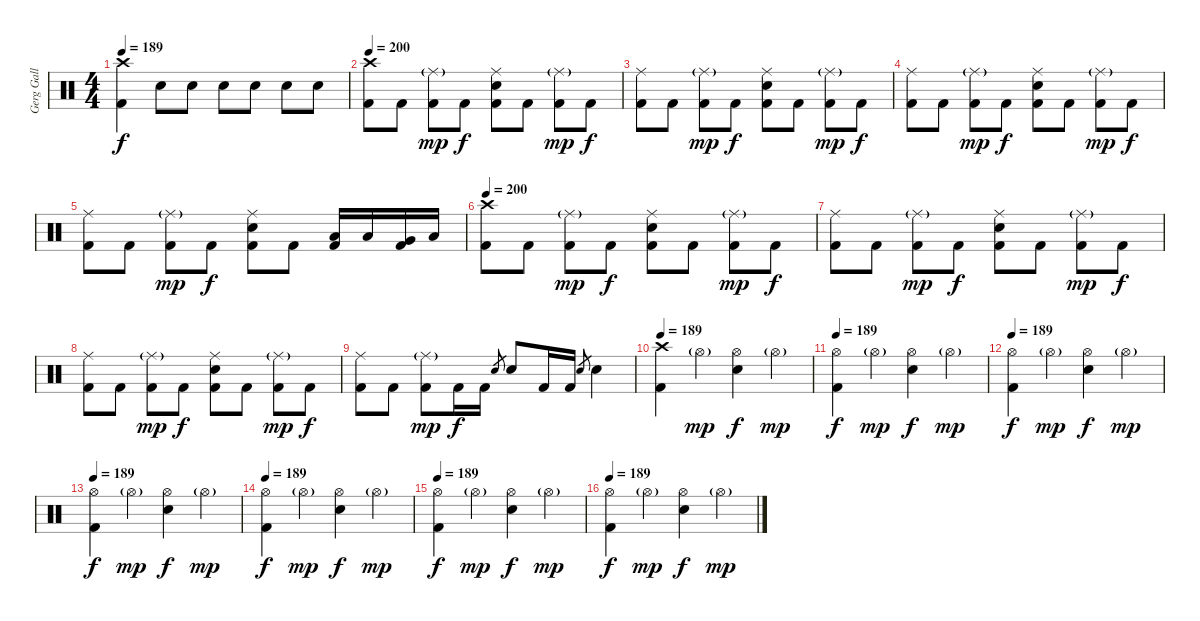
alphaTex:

\track ("Gerg Gall (Drums)" "Gerg Gall ") {instrument percussion}
\staff {score}
\articulation defaults
\ts (4 4)
\tempo 189
\clef neutral
\ks c
("Crash high (hit)" "Kick (hit) 2").4{dy f} "Snare (hit) 2".8 "Snare (hit) 2".8 "Snare (hit) 2".8 "Snare (hit) 2".8 "Snare (hit) 2".8 "Snare (hit) 2".8 |
\tempo 200
("Crash high (hit)" "Kick (hit) 2").8 "Kick (hit) 2".8 ("Ride (middle)"{g} "Kick (hit) 2").8{dy mp} "Kick (hit) 2".8{dy f} ("Snare (hit) 2" "Ride (middle)" "Kick (hit) 2").8 "Kick (hit) 2".8 ("Ride (middle)"{g} "Kick (hit) 2").8{dy mp} "Kick (hit) 2".8{dy f} |
("Ride (middle)" "Kick (hit) 2").8 "Kick (hit) 2".8 ("Ride (middle)"{g} "Kick (hit) 2").8{dy mp} "Kick (hit) 2".8{dy f} ("Snare (hit) 2" "Ride (middle)" "Kick (hit) 2").8 "Kick (hit) 2".8 ("Ride (middle)"{g} "Kick (hit) 2").8{dy mp} "Kick (hit) 2".8{dy f} |
("Ride (middle)" "Kick (hit) 2").8 "Kick (hit) 2".8 ("Ride (middle)"{g} "Kick (hit) 2").8{dy mp} "Kick (hit) 2".8{dy f} ("Snare (hit) 2" "Ride (middle)" "Kick (hit) 2").8 "Kick (hit) 2".8 ("Ride (middle)"{g} "Kick (hit) 2").8{dy mp} "Kick (hit) 2".8{dy f} |
("Ride (middle)" "Kick (hit) 2").8 "Kick (hit) 2".8 ("Ride (middle)"{g} "Kick (hit) 2").8{dy mp} "Kick (hit) 2".8{dy f} ("Snare (hit) 2" "Ride (middle)" "Kick (hit) 2").8 "Kick (hit) 2".8 ("Low Tom (hit)" "Kick (hit) 2").16 "Low Tom (hit)".16 ("Very Low Tom (hit)" "Kick (hit) 2").16 "Low Floor Tom (hit)".16 |
\tempo 200
("Crash high (hit)" "Kick (hit) 2").8 "Kick (hit) 2".8 ("Ride (middle)"{g} "Kick (hit) 2").8{dy mp} "Kick (hit) 2".8{dy f} ("Snare (hit) 2" "Ride (middle)" "Kick (hit) 2").8 "Kick (hit) 2".8 ("Ride (middle)"{g} "Kick (hit) 2").8{dy mp} "Kick (hit) 2".8{dy f} |
("Ride (middle)" "Kick (hit) 2").8 "Kick (hit) 2".8 ("Ride (middle)"{g} "Kick (hit) 2").8{dy mp} "Kick (hit) 2".8{dy f} ("Snare (hit) 2" "Ride (middle)" "Kick (hit) 2").8 "Kick (hit) 2".8 ("Ride (middle)"{g} "Kick (hit) 2").8{dy mp} "Kick (hit) 2".8{dy f} |
("Ride (middle)" "Kick (hit) 2").8 "Kick (hit) 2".8 ("Ride (middle)"{g} "Kick (hit) 2").8{dy mp} "Kick (hit) 2".8{dy f} ("Snare (hit) 2" "Ride (middle)" "Kick (hit) 2").8 "Kick (hit) 2".8 ("Ride (middle)"{g} "Kick (hit) 2").8{dy mp} "Kick (hit) 2".8{dy f} |
("Ride (middle)" "Kick (hit) 2").8 "Kick (hit) 2".8 ("Ride (middle)"{g} "Kick (hit) 2").8{dy mp} "Kick (hit) 2".16{dy f} "Kick (hit) 2".16 "Snare (hit) 2".8{gr} "Snare (hit) 2".8 "Kick (hit) 2".16 "Kick (hit) 2".16 "Snare (hit) 2".8{gr} "Snare (hit) 2".4 |
\tempo 189
("Crash high (hit)" "Kick (hit) 2").4 "Hi-Hat (open)"{g}.4{dy mp} ("Hi-Hat (open)" "Snare (hit) 2").4{dy f} "Hi-Hat (open)"{g}.4{dy mp} |
\tempo 189
("Hi-Hat (open)" "Kick (hit) 2").4{dy f} "Hi-Hat (open)"{g}.4{dy mp} ("Hi-Hat (open)" "Snare (hit) 2").4{dy f} "Hi-Hat (open)"{g}.4{dy mp} |
\tempo 189
("Hi-Hat (open)" "Kick (hit) 2").4{dy f} "Hi-Hat (open)"{g}.4{dy mp} ("Hi-Hat (open)" "Snare (hit) 2").4{dy f} "Hi-Hat (open)"{g}.4{dy mp} |
\tempo 189
("Hi-Hat (open)" "Kick (hit) 2").4{dy f} "Hi-Hat (open)"{g}.4{dy mp} ("Hi-Hat (open)" "Snare (hit) 2").4{dy f} "Hi-Hat (open)"{g}.4{dy mp} |
\tempo 189
("Hi-Hat (open)" "Kick (hit) 2").4{dy f} "Hi-Hat (open)"{g}.4{dy mp} ("Hi-Hat (open)" "Snare (hit) 2").4{dy f} "Hi-Hat (open)"{g}.4{dy mp} |
\tempo 189
("Hi-Hat (open)" "Kick (hit) 2").4{dy f} "Hi-Hat (open)"{g}.4{dy mp} ("Hi-Hat (open)" "Snare (hit) 2").4{dy f} "Hi-Hat (open)"{g}.4{dy mp} |
\tempo 189
("Hi-Hat (open)" "Kick (hit) 2").4{dy f} "Hi-Hat (open)"{g}.4{dy mp} ("Hi-Hat (open)" "Snare (hit) 2").4{dy f} "Hi-Hat (open)"{g}.4{dy mp}
